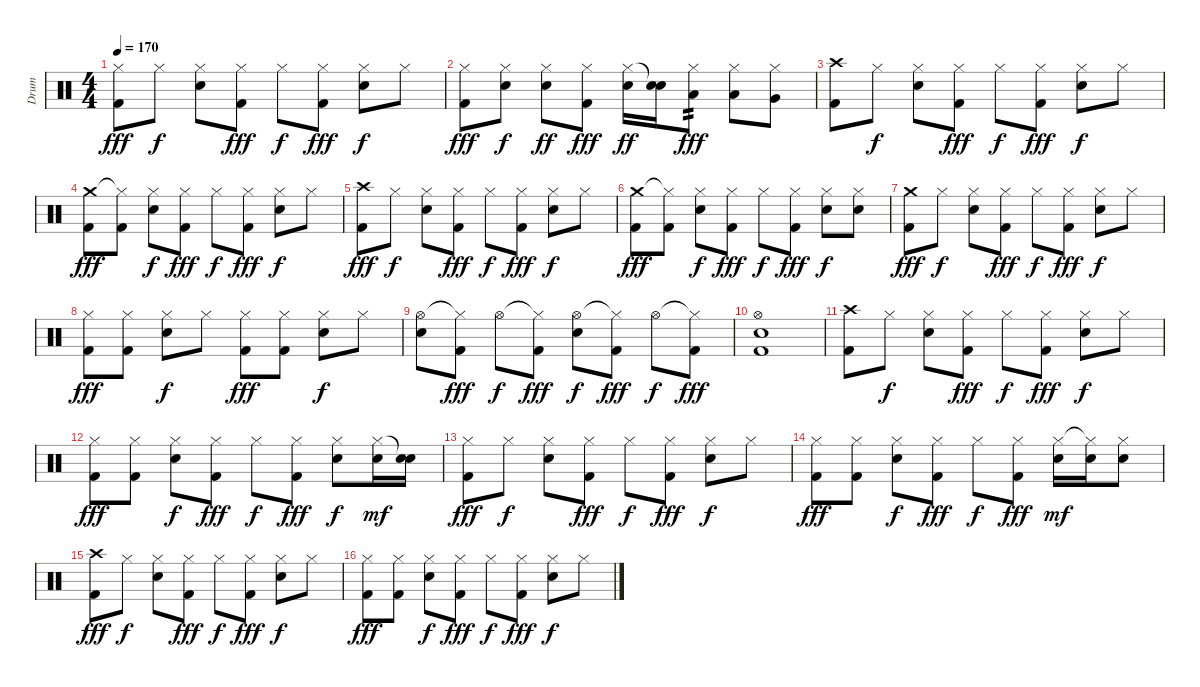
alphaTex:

\track ("Drum" "Drum") {instrument percussion}
\staff {score}
\articulation defaults
\ts (4 4)
\tempo 170
\clef neutral
\ks c
("Hi-Hat (closed)" "Kick (hit) 2").8{dy fff} "Hi-Hat (closed)".8{dy f} ("Hi-Hat (closed)" "Snare (hit) 2").8 ("Hi-Hat (closed)" "Kick (hit) 2").8{dy fff} "Hi-Hat (closed)".8{dy f} ("Hi-Hat (closed)" "Kick (hit) 2").8{dy fff} ("Hi-Hat (closed)" "Snare (hit) 2").8{dy f} "Hi-Hat (closed)".8 |
("Hi-Hat (closed)" "Kick (hit) 2").8{dy fff} ("Hi-Hat (closed)" "Snare (hit) 2").8{dy f} ("Hi-Hat (closed)" "Snare (hit) 2").8{dy ff} ("Hi-Hat (closed)" "Kick (hit) 2").8{dy fff} ("Hi-Hat (closed)" "Snare (hit) 2").16{dy ff} ("Snare (hit)"{t} "Snare (hit) 2").16 ("Hi-Hat (closed)" "Low Tom (hit)").8{tp 2 dy fff} ("Hi-Hat (closed)" "Low Tom (hit)").8 ("Hi-Hat (closed)" "Very Low Tom (hit)").8 |
("Crash high (hit)" "Kick (hit) 2").8 "Hi-Hat (closed)".8{dy f} ("Hi-Hat (closed)" "Snare (hit) 2").8 ("Hi-Hat (closed)" "Kick (hit) 2").8{dy fff} "Hi-Hat (closed)".8{dy f} ("Hi-Hat (closed)" "Kick (hit) 2").8{dy fff} ("Hi-Hat (closed)" "Snare (hit) 2").8{dy f} "Hi-Hat (closed)".8 |
("Crash medium (hit)" "Kick (hit) 2").8{dy fff} ("Hi-Hat (closed)"{t} "Kick (hit) 2").8 ("Hi-Hat (closed)" "Snare (hit) 2").8{dy f} ("Hi-Hat (closed)" "Kick (hit) 2").8{dy fff} "Hi-Hat (closed)".8{dy f} ("Hi-Hat (closed)" "Kick (hit) 2").8{dy fff} ("Hi-Hat (closed)" "Snare (hit) 2").8{dy f} "Hi-Hat (closed)".8 |
("Crash high (hit)" "Kick (hit) 2").8{dy fff} "Hi-Hat (closed)".8{dy f} ("Hi-Hat (closed)" "Snare (hit) 2").8 ("Hi-Hat (closed)" "Kick (hit) 2").8{dy fff} "Hi-Hat (closed)".8{dy f} ("Hi-Hat (closed)" "Kick (hit) 2").8{dy fff} ("Hi-Hat (closed)" "Snare (hit) 2").8{dy f} "Hi-Hat (closed)".8 |
("Crash medium (hit)" "Kick (hit) 2").8{dy fff} ("Hi-Hat (closed)"{t} "Kick (hit) 2").8 ("Hi-Hat (closed)" "Snare (hit) 2").8{dy f} ("Hi-Hat (closed)" "Kick (hit) 2").8{dy fff} "Hi-Hat (closed)".8{dy f} ("Hi-Hat (closed)" "Kick (hit) 2").8{dy fff} ("Hi-Hat (closed)" "Snare (hit) 2").8{dy f} ("Hi-Hat (closed)" "Snare (hit) 2").8 |
("Crash medium (hit)" "Kick (hit) 2").8{dy fff} "Hi-Hat (closed)".8{dy f} ("Hi-Hat (closed)" "Snare (hit) 2").8 ("Hi-Hat (closed)" "Kick (hit) 2").8{dy fff} "Hi-Hat (closed)".8{dy f} ("Hi-Hat (closed)" "Kick (hit) 2").8{dy fff} ("Hi-Hat (closed)" "Snare (hit) 2").8{dy f} "Hi-Hat (closed)".8 |
("Hi-Hat (closed)" "Kick (hit) 2").8{dy fff} ("Hi-Hat (closed)" "Kick (hit) 2").8 ("Hi-Hat (closed)" "Snare (hit) 2").8{dy f} "Hi-Hat (closed)".8 ("Hi-Hat (closed)" "Kick (hit) 2").8{dy fff} ("Hi-Hat (closed)" "Kick (hit) 2").8 ("Hi-Hat (closed)" "Snare (hit) 2").8{dy f} "Hi-Hat (closed)".8 |
("Hi-Hat (open)" "Snare (hit) 2").8 ("Hi-Hat (closed)"{t} "Kick (hit) 2").8{dy fff} "Hi-Hat (open)".8{dy f} ("Hi-Hat (closed)"{t} "Kick (hit) 2").8{dy fff} ("Hi-Hat (open)" "Snare (hit) 2").8{dy f} ("Hi-Hat (closed)"{t} "Kick (hit) 2").8{dy fff} "Hi-Hat (open)".8{dy f} ("Hi-Hat (closed)"{t} "Kick (hit) 2").8{dy fff} |
("Hi-Hat (open)" "Snare (hit) 2" "Kick (hit) 2").1 |
("Crash high (hit)" "Kick (hit) 2").8 "Hi-Hat (closed)".8{dy f} ("Hi-Hat (closed)" "Snare (hit) 2").8 ("Hi-Hat (closed)" "Kick (hit) 2").8{dy fff} "Hi-Hat (closed)".8{dy f} ("Hi-Hat (closed)" "Kick (hit) 2").8{dy fff} ("Hi-Hat (closed)" "Snare (hit) 2").8{dy f} "Hi-Hat (closed)".8 |
("Hi-Hat (closed)" "Kick (hit) 2").8{dy fff} ("Hi-Hat (closed)" "Kick (hit) 2").8 ("Hi-Hat (closed)" "Snare (hit) 2").8{dy f} ("Hi-Hat (closed)" "Kick (hit) 2").8{dy fff} "Hi-Hat (closed)".8{dy f} ("Hi-Hat (closed)" "Kick (hit) 2").8{dy fff} ("Hi-Hat (closed)" "Snare (hit) 2").8{dy f} ("Hi-Hat (closed)" "Snare (hit) 2").16{dy mf} ("Snare (hit)"{t} "Snare (hit) 2").16 |
("Hi-Hat (closed)" "Kick (hit) 2").8{dy fff} "Hi-Hat (closed)".8{dy f} ("Hi-Hat (closed)" "Snare (hit) 2").8 ("Hi-Hat (closed)" "Kick (hit) 2").8{dy fff} "Hi-Hat (closed)".8{dy f} ("Hi-Hat (closed)" "Kick (hit) 2").8{dy fff} ("Hi-Hat (closed)" "Snare (hit) 2").8{dy f} "Hi-Hat (closed)".8 |
("Hi-Hat (closed)" "Kick (hit) 2").8{dy fff} ("Hi-Hat (closed)" "Kick (hit) 2").8 ("Hi-Hat (closed)" "Snare (hit) 2").8{dy f} ("Hi-Hat (closed)" "Kick (hit) 2").8{dy fff} "Hi-Hat (closed)".8{dy f} ("Hi-Hat (closed)" "Kick (hit) 2").8{dy fff} ("Hi-Hat (closed)" "Snare (hit) 2").16{dy mf} ("Hi-Hat (closed)"{t} "Snare (hit) 2").16 ("Hi-Hat (closed)" "Snare (hit) 2").8 |
("Crash high (hit)" "Kick (hit) 2").8{dy fff} "Hi-Hat (closed)".8{dy f} ("Hi-Hat (closed)" "Snare (hit) 2").8 ("Hi-Hat (closed)" "Kick (hit) 2").8{dy fff} "Hi-Hat (closed)".8{dy f} ("Hi-Hat (closed)" "Kick (hit) 2").8{dy fff} ("Hi-Hat (closed)" "Snare (hit) 2").8{dy f} "Hi-Hat (closed)".8 |
("Hi-Hat (closed)" "Kick (hit) 2").8{dy fff} ("Hi-Hat (closed)" "Kick (hit) 2").8 ("Hi-Hat (closed)" "Snare (hit) 2").8{dy f} ("Hi-Hat (closed)" "Kick (hit) 2").8{dy fff} "Hi-Hat (closed)".8{dy f} ("Hi-Hat (closed)" "Kick (hit) 2").8{dy fff} ("Hi-Hat (closed)" "Snare (hit) 2").8{dy f} "Hi-Hat (closed)".8
